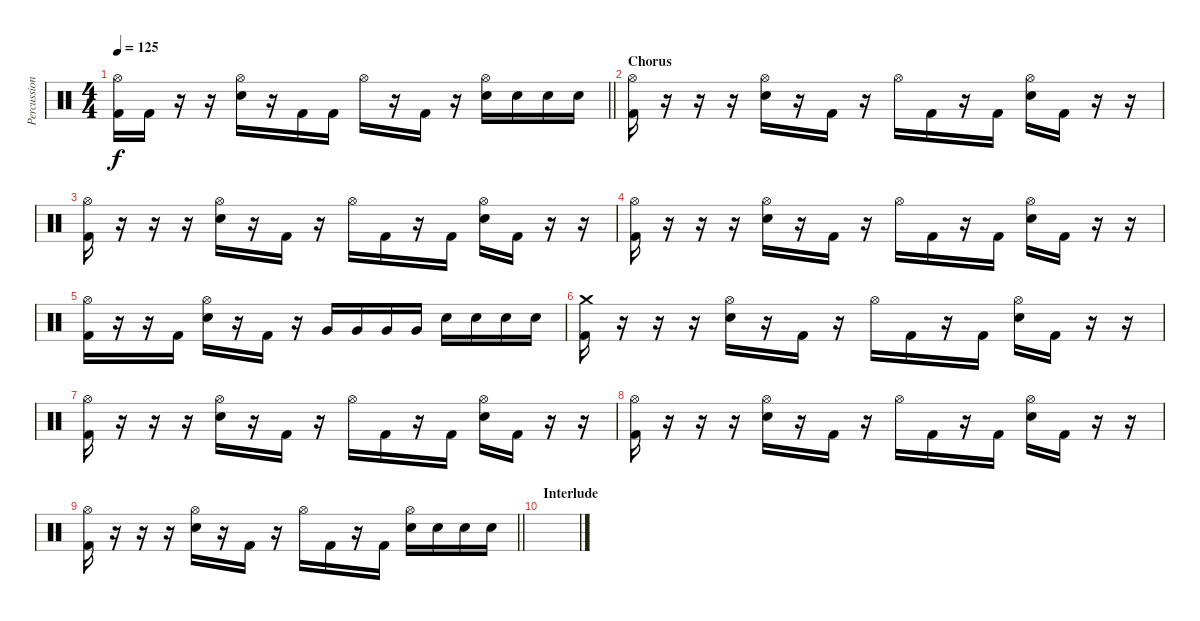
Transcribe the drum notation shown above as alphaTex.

\track ("Percussion" "Percussion") {instrument percussion}
\staff {score}
\articulation defaults
\ts (4 4)
\tempo 125
\clef neutral
\barLineRight lightlight
\ks c
("Hi-Hat (open)" "Kick (hit) 2").16{dy f} "Kick (hit) 2".16 r.16 r.16 ("Hi-Hat (open)" "Electric Snare (hit)").16 r.16 "Kick (hit) 2".16 "Kick (hit) 2".16 "Hi-Hat (open)".16 r.16 "Kick (hit) 2".16 r.16 ("Hi-Hat (open)" "Electric Snare (hit)").16 "Electric Snare (hit)".16 "Electric Snare (hit)".16 "Electric Snare (hit)".16 |
\section ("" "Chorus")
("Hi-Hat (open)" "Kick (hit) 2").16 r.16 r.16 r.16 ("Hi-Hat (open)" "Electric Snare (hit)").16 r.16 "Kick (hit) 2".16 r.16 "Hi-Hat (open)".16 "Kick (hit) 2".16 r.16 "Kick (hit) 2".16 ("Hi-Hat (open)" "Electric Snare (hit)").16 "Kick (hit) 2".16 r.16 r.16 |
("Hi-Hat (open)" "Kick (hit) 2").16 r.16 r.16 r.16 ("Hi-Hat (open)" "Electric Snare (hit)").16 r.16 "Kick (hit) 2".16 r.16 "Hi-Hat (open)".16 "Kick (hit) 2".16 r.16 "Kick (hit) 2".16 ("Hi-Hat (open)" "Electric Snare (hit)").16 "Kick (hit) 2".16 r.16 r.16 |
("Hi-Hat (open)" "Kick (hit) 2").16 r.16 r.16 r.16 ("Hi-Hat (open)" "Electric Snare (hit)").16 r.16 "Kick (hit) 2".16 r.16 "Hi-Hat (open)".16 "Kick (hit) 2".16 r.16 "Kick (hit) 2".16 ("Hi-Hat (open)" "Electric Snare (hit)").16 "Kick (hit) 2".16 r.16 r.16 |
("Hi-Hat (open)" "Kick (hit) 2").16 r.16 r.16 "Kick (hit) 2".16 ("Hi-Hat (open)" "Electric Snare (hit)").16 r.16 "Kick (hit) 2".16 r.16 "Very Low Tom (hit)".16 "Very Low Tom (hit)".16 "Very Low Tom (hit)".16 "Very Low Tom (hit)".16 "Electric Snare (hit)".16 "Electric Snare (hit)".16 "Electric Snare (hit)".16 "Electric Snare (hit)".16 |
("Crash medium (hit)" "Kick (hit) 2").16 r.16 r.16 r.16 ("Hi-Hat (open)" "Electric Snare (hit)").16 r.16 "Kick (hit) 2".16 r.16 "Hi-Hat (open)".16 "Kick (hit) 2".16 r.16 "Kick (hit) 2".16 ("Hi-Hat (open)" "Electric Snare (hit)").16 "Kick (hit) 2".16 r.16 r.16 |
("Hi-Hat (open)" "Kick (hit) 2").16 r.16 r.16 r.16 ("Hi-Hat (open)" "Electric Snare (hit)").16 r.16 "Kick (hit) 2".16 r.16 "Hi-Hat (open)".16 "Kick (hit) 2".16 r.16 "Kick (hit) 2".16 ("Hi-Hat (open)" "Electric Snare (hit)").16 "Kick (hit) 2".16 r.16 r.16 |
("Hi-Hat (open)" "Kick (hit) 2").16 r.16 r.16 r.16 ("Hi-Hat (open)" "Electric Snare (hit)").16 r.16 "Kick (hit) 2".16 r.16 "Hi-Hat (open)".16 "Kick (hit) 2".16 r.16 "Kick (hit) 2".16 ("Hi-Hat (open)" "Electric Snare (hit)").16 "Kick (hit) 2".16 r.16 r.16 |
\barLineRight lightlight
("Hi-Hat (open)" "Kick (hit) 2").16 r.16 r.16 r.16 ("Hi-Hat (open)" "Electric Snare (hit)").16 r.16 "Kick (hit) 2".16 r.16 "Hi-Hat (open)".16 "Kick (hit) 2".16 r.16 "Kick (hit) 2".16 ("Hi-Hat (open)" "Electric Snare (hit)").16 "Electric Snare (hit)".16 "Electric Snare (hit)".16 "Electric Snare (hit)".16 |
\section ("" "Interlude")
